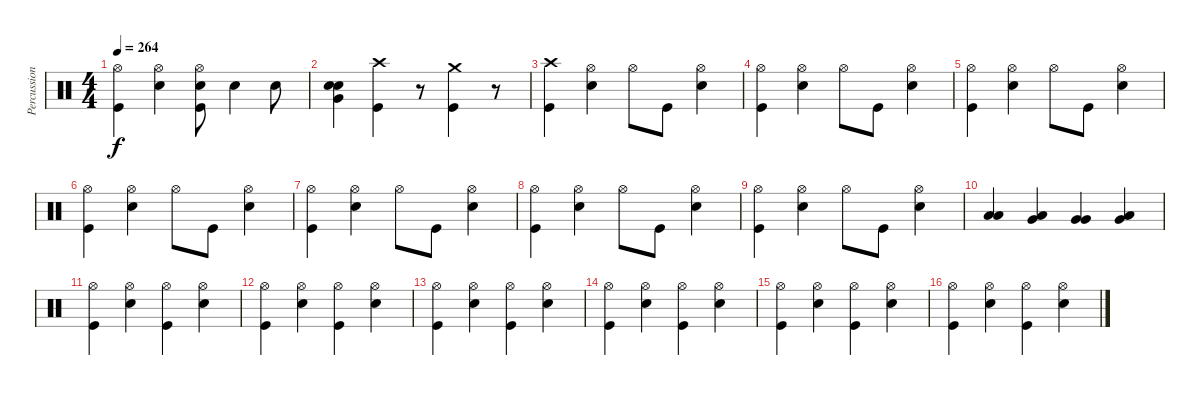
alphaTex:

\track ("Percussion" "Percussion") {instrument percussion}
\staff {score}
\articulation defaults
\ts (4 4)
\tempo 264
\clef neutral
\ks c
("Hi-Hat (open)" "Kick (hit)").4{dy f} ("Hi-Hat (open)" "Snare (hit) 2").4 ("Hi-Hat (open)" "Snare (hit) 2" "Kick (hit)").8 "Snare (hit) 2".4 "Snare (hit) 2".8 |
("Very Low Tom (hit)" "Electric Snare (hit)" "Snare (hit) 2").4 ("Crash high (hit)" "Kick (hit)").4 r.8 ("Crash medium (hit)" "Kick (hit)").4 r.8 |
("Crash high (hit)" "Kick (hit)").4 ("Hi-Hat (open)" "Snare (hit) 2").4 "Hi-Hat (open)".8 "Kick (hit)".8 ("Hi-Hat (open)" "Snare (hit) 2").4 |
("Hi-Hat (open)" "Kick (hit)").4 ("Hi-Hat (open)" "Snare (hit) 2").4 "Hi-Hat (open)".8 "Kick (hit)".8 ("Hi-Hat (open)" "Snare (hit) 2").4 |
("Hi-Hat (open)" "Kick (hit)").4 ("Hi-Hat (open)" "Snare (hit) 2").4 "Hi-Hat (open)".8 "Kick (hit)".8 ("Hi-Hat (open)" "Snare (hit) 2").4 |
("Hi-Hat (open)" "Kick (hit)").4 ("Hi-Hat (open)" "Snare (hit) 2").4 "Hi-Hat (open)".8 "Kick (hit)".8 ("Hi-Hat (open)" "Snare (hit) 2").4 |
("Hi-Hat (open)" "Kick (hit)").4 ("Hi-Hat (open)" "Snare (hit) 2").4 "Hi-Hat (open)".8 "Kick (hit)".8 ("Hi-Hat (open)" "Snare (hit) 2").4 |
("Hi-Hat (open)" "Kick (hit)").4 ("Hi-Hat (open)" "Snare (hit) 2").4 "Hi-Hat (open)".8 "Kick (hit)".8 ("Hi-Hat (open)" "Snare (hit) 2").4 |
("Hi-Hat (open)" "Kick (hit)").4 ("Hi-Hat (open)" "Snare (hit) 2").4 "Hi-Hat (open)".8 "Kick (hit)".8 ("Hi-Hat (open)" "Snare (hit) 2").4 |
("Low Floor Tom (hit)" "Low Floor Tom (hit)").4 ("Very Low Tom (hit)" "Low Floor Tom (hit)").4 ("Very Low Tom (hit)" "Very Low Tom (hit)").4 ("Low Tom (hit)" "Very Low Tom (hit)").4 |
("Hi-Hat (open)" "Kick (hit)").4 ("Hi-Hat (open)" "Snare (hit) 2").4 ("Hi-Hat (open)" "Kick (hit)").4 ("Hi-Hat (open)" "Snare (hit) 2").4 |
("Hi-Hat (open)" "Kick (hit)").4 ("Hi-Hat (open)" "Snare (hit) 2").4 ("Hi-Hat (open)" "Kick (hit)").4 ("Hi-Hat (open)" "Snare (hit) 2").4 |
("Hi-Hat (open)" "Kick (hit)").4 ("Hi-Hat (open)" "Snare (hit) 2").4 ("Hi-Hat (open)" "Kick (hit)").4 ("Hi-Hat (open)" "Snare (hit) 2").4 |
("Hi-Hat (open)" "Kick (hit)").4 ("Hi-Hat (open)" "Snare (hit) 2").4 ("Hi-Hat (open)" "Kick (hit)").4 ("Hi-Hat (open)" "Snare (hit) 2").4 |
("Hi-Hat (open)" "Kick (hit)").4 ("Hi-Hat (open)" "Snare (hit) 2").4 ("Hi-Hat (open)" "Kick (hit)").4 ("Hi-Hat (open)" "Snare (hit) 2").4 |
("Hi-Hat (open)" "Kick (hit)").4 ("Hi-Hat (open)" "Snare (hit) 2").4 ("Hi-Hat (open)" "Kick (hit)").4 ("Hi-Hat (open)" "Snare (hit) 2").4
